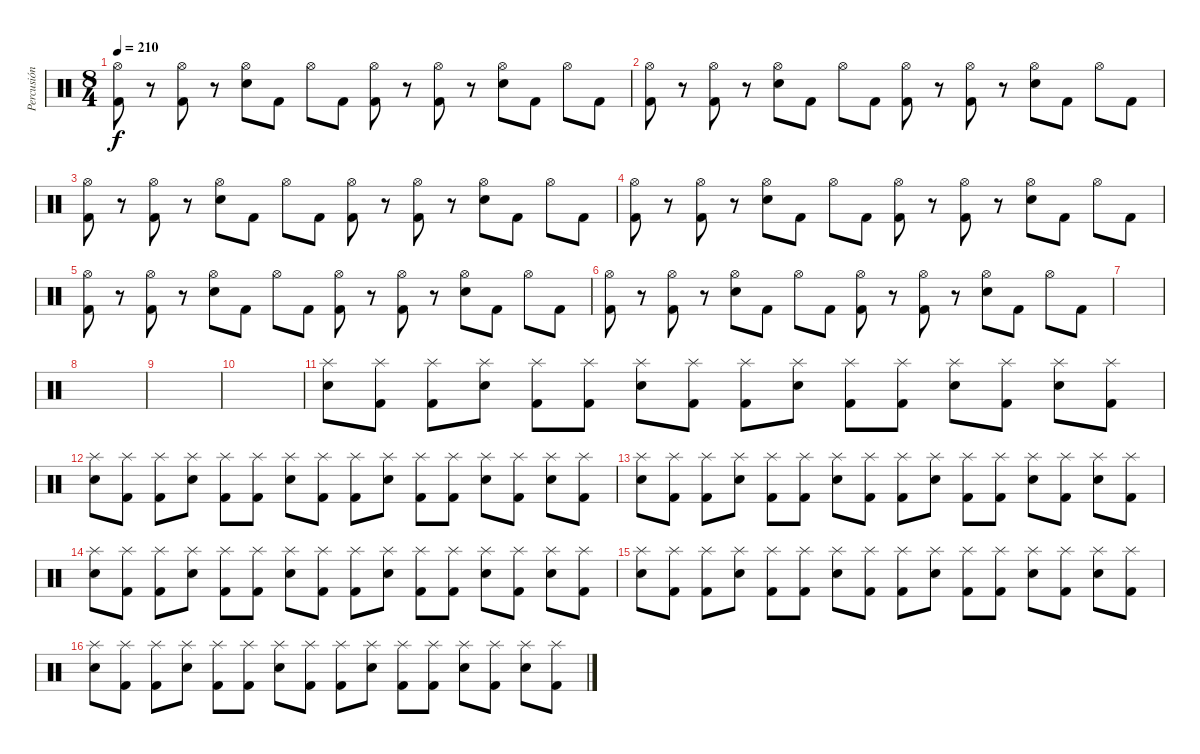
\track ("Percusión" "Percusión") {instrument percussion}
\staff {score}
\articulation defaults
\ts (8 4)
\tempo 210
\clef neutral
\ks c
("Hi-Hat (open)" "Kick (hit) 2").8{dy f} r.8 ("Hi-Hat (open)" "Kick (hit) 2").8 r.8 ("Hi-Hat (open)" "Electric Snare (hit)").8 "Kick (hit) 2".8 "Hi-Hat (open)".8 "Kick (hit) 2".8 ("Hi-Hat (open)" "Kick (hit) 2").8 r.8 ("Hi-Hat (open)" "Kick (hit) 2").8 r.8 ("Hi-Hat (open)" "Electric Snare (hit)").8 "Kick (hit) 2".8 "Hi-Hat (open)".8 "Kick (hit) 2".8 |
("Hi-Hat (open)" "Kick (hit) 2").8 r.8 ("Hi-Hat (open)" "Kick (hit) 2").8 r.8 ("Hi-Hat (open)" "Electric Snare (hit)").8 "Kick (hit) 2".8 "Hi-Hat (open)".8 "Kick (hit) 2".8 ("Hi-Hat (open)" "Kick (hit) 2").8 r.8 ("Hi-Hat (open)" "Kick (hit) 2").8 r.8 ("Hi-Hat (open)" "Electric Snare (hit)").8 "Kick (hit) 2".8 "Hi-Hat (open)".8 "Kick (hit) 2".8 |
("Hi-Hat (open)" "Kick (hit) 2").8 r.8 ("Hi-Hat (open)" "Kick (hit) 2").8 r.8 ("Hi-Hat (open)" "Electric Snare (hit)").8 "Kick (hit) 2".8 "Hi-Hat (open)".8 "Kick (hit) 2".8 ("Hi-Hat (open)" "Kick (hit) 2").8 r.8 ("Hi-Hat (open)" "Kick (hit) 2").8 r.8 ("Hi-Hat (open)" "Electric Snare (hit)").8 "Kick (hit) 2".8 "Hi-Hat (open)".8 "Kick (hit) 2".8 |
("Hi-Hat (open)" "Kick (hit) 2").8 r.8 ("Hi-Hat (open)" "Kick (hit) 2").8 r.8 ("Hi-Hat (open)" "Electric Snare (hit)").8 "Kick (hit) 2".8 "Hi-Hat (open)".8 "Kick (hit) 2".8 ("Hi-Hat (open)" "Kick (hit) 2").8 r.8 ("Hi-Hat (open)" "Kick (hit) 2").8 r.8 ("Hi-Hat (open)" "Electric Snare (hit)").8 "Kick (hit) 2".8 "Hi-Hat (open)".8 "Kick (hit) 2".8 |
("Hi-Hat (open)" "Kick (hit) 2").8 r.8 ("Hi-Hat (open)" "Kick (hit) 2").8 r.8 ("Hi-Hat (open)" "Electric Snare (hit)").8 "Kick (hit) 2".8 "Hi-Hat (open)".8 "Kick (hit) 2".8 ("Hi-Hat (open)" "Kick (hit) 2").8 r.8 ("Hi-Hat (open)" "Kick (hit) 2").8 r.8 ("Hi-Hat (open)" "Electric Snare (hit)").8 "Kick (hit) 2".8 "Hi-Hat (open)".8 "Kick (hit) 2".8 |
("Hi-Hat (open)" "Kick (hit) 2").8 r.8 ("Hi-Hat (open)" "Kick (hit) 2").8 r.8 ("Hi-Hat (open)" "Electric Snare (hit)").8 "Kick (hit) 2".8 "Hi-Hat (open)".8 "Kick (hit) 2".8 ("Hi-Hat (open)" "Kick (hit) 2").8 r.8 ("Hi-Hat (open)" "Kick (hit) 2").8 r.8 ("Hi-Hat (open)" "Electric Snare (hit)").8 "Kick (hit) 2".8 "Hi-Hat (open)".8 "Kick (hit) 2".8 |
|
|
|
|
("Splash (hit)" "Electric Snare (hit)").8 ("Splash (hit)" "Kick (hit) 2").8 ("Splash (hit)" "Kick (hit) 2").8 ("Splash (hit)" "Electric Snare (hit)").8 ("Splash (hit)" "Kick (hit) 2").8 ("Splash (hit)" "Kick (hit) 2").8 ("Splash (hit)" "Electric Snare (hit)").8 ("Splash (hit)" "Kick (hit) 2").8 ("Splash (hit)" "Kick (hit) 2").8 ("Splash (hit)" "Electric Snare (hit)").8 ("Splash (hit)" "Kick (hit) 2").8 ("Splash (hit)" "Kick (hit) 2").8 ("Splash (hit)" "Electric Snare (hit)").8 ("Splash (hit)" "Kick (hit) 2").8 ("Splash (hit)" "Electric Snare (hit)").8 ("Splash (hit)" "Kick (hit) 2").8 |
("Splash (hit)" "Electric Snare (hit)").8 ("Splash (hit)" "Kick (hit) 2").8 ("Splash (hit)" "Kick (hit) 2").8 ("Splash (hit)" "Electric Snare (hit)").8 ("Splash (hit)" "Kick (hit) 2").8 ("Splash (hit)" "Kick (hit) 2").8 ("Splash (hit)" "Electric Snare (hit)").8 ("Splash (hit)" "Kick (hit) 2").8 ("Splash (hit)" "Kick (hit) 2").8 ("Splash (hit)" "Electric Snare (hit)").8 ("Splash (hit)" "Kick (hit) 2").8 ("Splash (hit)" "Kick (hit) 2").8 ("Splash (hit)" "Electric Snare (hit)").8 ("Splash (hit)" "Kick (hit) 2").8 ("Splash (hit)" "Electric Snare (hit)").8 ("Splash (hit)" "Kick (hit) 2").8 |
("Splash (hit)" "Electric Snare (hit)").8 ("Splash (hit)" "Kick (hit) 2").8 ("Splash (hit)" "Kick (hit) 2").8 ("Splash (hit)" "Electric Snare (hit)").8 ("Splash (hit)" "Kick (hit) 2").8 ("Splash (hit)" "Kick (hit) 2").8 ("Splash (hit)" "Electric Snare (hit)").8 ("Splash (hit)" "Kick (hit) 2").8 ("Splash (hit)" "Kick (hit) 2").8 ("Splash (hit)" "Electric Snare (hit)").8 ("Splash (hit)" "Kick (hit) 2").8 ("Splash (hit)" "Kick (hit) 2").8 ("Splash (hit)" "Electric Snare (hit)").8 ("Splash (hit)" "Kick (hit) 2").8 ("Splash (hit)" "Electric Snare (hit)").8 ("Splash (hit)" "Kick (hit) 2").8 |
("Splash (hit)" "Electric Snare (hit)").8 ("Splash (hit)" "Kick (hit) 2").8 ("Splash (hit)" "Kick (hit) 2").8 ("Splash (hit)" "Electric Snare (hit)").8 ("Splash (hit)" "Kick (hit) 2").8 ("Splash (hit)" "Kick (hit) 2").8 ("Splash (hit)" "Electric Snare (hit)").8 ("Splash (hit)" "Kick (hit) 2").8 ("Splash (hit)" "Kick (hit) 2").8 ("Splash (hit)" "Electric Snare (hit)").8 ("Splash (hit)" "Kick (hit) 2").8 ("Splash (hit)" "Kick (hit) 2").8 ("Splash (hit)" "Electric Snare (hit)").8 ("Splash (hit)" "Kick (hit) 2").8 ("Splash (hit)" "Electric Snare (hit)").8 ("Splash (hit)" "Kick (hit) 2").8 |
("Splash (hit)" "Electric Snare (hit)").8 ("Splash (hit)" "Kick (hit) 2").8 ("Splash (hit)" "Kick (hit) 2").8 ("Splash (hit)" "Electric Snare (hit)").8 ("Splash (hit)" "Kick (hit) 2").8 ("Splash (hit)" "Kick (hit) 2").8 ("Splash (hit)" "Electric Snare (hit)").8 ("Splash (hit)" "Kick (hit) 2").8 ("Splash (hit)" "Kick (hit) 2").8 ("Splash (hit)" "Electric Snare (hit)").8 ("Splash (hit)" "Kick (hit) 2").8 ("Splash (hit)" "Kick (hit) 2").8 ("Splash (hit)" "Electric Snare (hit)").8 ("Splash (hit)" "Kick (hit) 2").8 ("Splash (hit)" "Electric Snare (hit)").8 ("Splash (hit)" "Kick (hit) 2").8 |
("Splash (hit)" "Electric Snare (hit)").8 ("Splash (hit)" "Kick (hit) 2").8 ("Splash (hit)" "Kick (hit) 2").8 ("Splash (hit)" "Electric Snare (hit)").8 ("Splash (hit)" "Kick (hit) 2").8 ("Splash (hit)" "Kick (hit) 2").8 ("Splash (hit)" "Electric Snare (hit)").8 ("Splash (hit)" "Kick (hit) 2").8 ("Splash (hit)" "Kick (hit) 2").8 ("Splash (hit)" "Electric Snare (hit)").8 ("Splash (hit)" "Kick (hit) 2").8 ("Splash (hit)" "Kick (hit) 2").8 ("Splash (hit)" "Electric Snare (hit)").8 ("Splash (hit)" "Kick (hit) 2").8 ("Splash (hit)" "Electric Snare (hit)").8 ("Splash (hit)" "Kick (hit) 2").8
